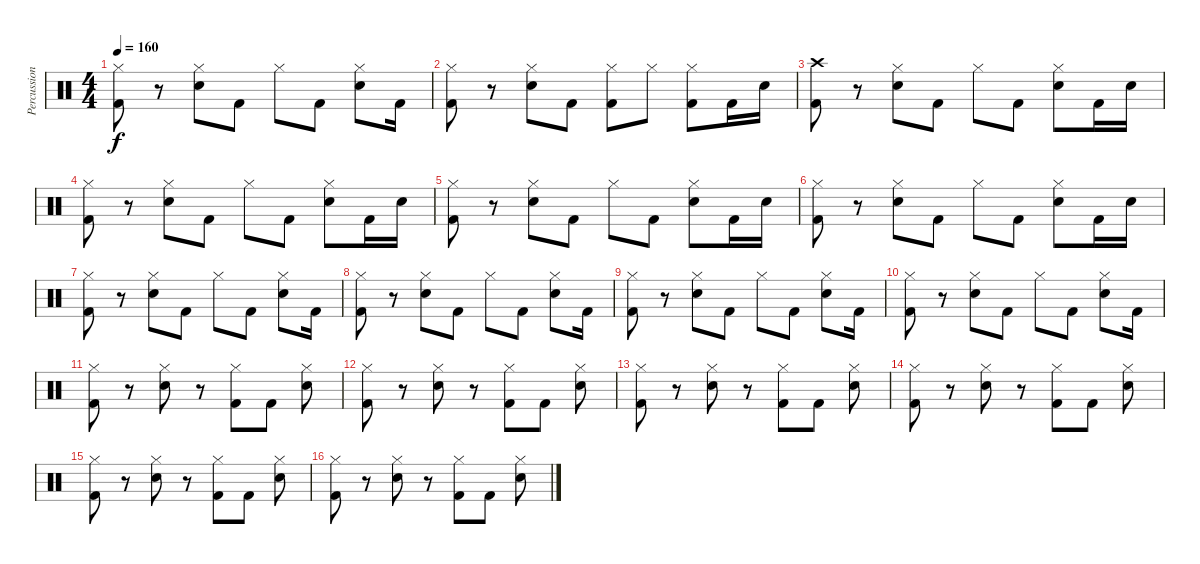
\track ("Percussion" "Percussion") {instrument percussion}
\staff {score}
\articulation defaults
\ts (4 4)
\tempo 160
\clef neutral
\ks c
("Hi-Hat (closed)" "Kick (hit) 2").8{dy f} r.8 ("Hi-Hat (closed)" "Electric Snare (hit)").8 "Kick (hit) 2".8 "Hi-Hat (closed)".8 "Kick (hit) 2".8 ("Hi-Hat (closed)" "Electric Snare (hit)").8 "Kick (hit) 2".16 |
("Hi-Hat (closed)" "Kick (hit) 2").8 r.8 ("Hi-Hat (closed)" "Electric Snare (hit)").8 "Kick (hit) 2".8 ("Hi-Hat (closed)" "Kick (hit) 2").8 "Hi-Hat (closed)".8 ("Hi-Hat (closed)" "Kick (hit) 2").8 "Kick (hit) 2".16 "Electric Snare (hit)".16 |
("Crash high (hit)" "Kick (hit) 2").8 r.8 ("Hi-Hat (closed)" "Electric Snare (hit)").8 "Kick (hit) 2".8 "Hi-Hat (closed)".8 "Kick (hit) 2".8 ("Hi-Hat (closed)" "Electric Snare (hit)").8 "Kick (hit) 2".16 "Electric Snare (hit)".16 |
("Hi-Hat (closed)" "Kick (hit) 2").8 r.8 ("Hi-Hat (closed)" "Electric Snare (hit)").8 "Kick (hit) 2".8 "Hi-Hat (closed)".8 "Kick (hit) 2".8 ("Hi-Hat (closed)" "Electric Snare (hit)").8 "Kick (hit) 2".16 "Electric Snare (hit)".16 |
("Hi-Hat (closed)" "Kick (hit) 2").8 r.8 ("Hi-Hat (closed)" "Electric Snare (hit)").8 "Kick (hit) 2".8 "Hi-Hat (closed)".8 "Kick (hit) 2".8 ("Hi-Hat (closed)" "Electric Snare (hit)").8 "Kick (hit) 2".16 "Electric Snare (hit)".16 |
("Hi-Hat (closed)" "Kick (hit) 2").8 r.8 ("Hi-Hat (closed)" "Electric Snare (hit)").8 "Kick (hit) 2".8 "Hi-Hat (closed)".8 "Kick (hit) 2".8 ("Hi-Hat (closed)" "Electric Snare (hit)").8 "Kick (hit) 2".16 "Electric Snare (hit)".16 |
("Hi-Hat (closed)" "Kick (hit) 2").8 r.8 ("Hi-Hat (closed)" "Electric Snare (hit)").8 "Kick (hit) 2".8 "Hi-Hat (closed)".8 "Kick (hit) 2".8 ("Hi-Hat (closed)" "Electric Snare (hit)").8 "Kick (hit) 2".16 |
("Hi-Hat (closed)" "Kick (hit) 2").8 r.8 ("Hi-Hat (closed)" "Electric Snare (hit)").8 "Kick (hit) 2".8 "Hi-Hat (closed)".8 "Kick (hit) 2".8 ("Hi-Hat (closed)" "Electric Snare (hit)").8 "Kick (hit) 2".16 |
("Hi-Hat (closed)" "Kick (hit) 2").8 r.8 ("Hi-Hat (closed)" "Electric Snare (hit)").8 "Kick (hit) 2".8 "Hi-Hat (closed)".8 "Kick (hit) 2".8 ("Hi-Hat (closed)" "Electric Snare (hit)").8 "Kick (hit) 2".16 |
("Hi-Hat (closed)" "Kick (hit) 2").8 r.8 ("Hi-Hat (closed)" "Electric Snare (hit)").8 "Kick (hit) 2".8 "Hi-Hat (closed)".8 "Kick (hit) 2".8 ("Hi-Hat (closed)" "Electric Snare (hit)").8 "Kick (hit) 2".16 |
("Hi-Hat (closed)" "Kick (hit) 2").8 r.8 ("Hi-Hat (closed)" "Electric Snare (hit)").8 r.8 ("Hi-Hat (closed)" "Kick (hit) 2").8 "Kick (hit) 2".8 ("Hi-Hat (closed)" "Electric Snare (hit)").8 |
("Hi-Hat (closed)" "Kick (hit) 2").8 r.8 ("Hi-Hat (closed)" "Electric Snare (hit)").8 r.8 ("Hi-Hat (closed)" "Kick (hit) 2").8 "Kick (hit) 2".8 ("Hi-Hat (closed)" "Electric Snare (hit)").8 |
("Hi-Hat (closed)" "Kick (hit) 2").8 r.8 ("Hi-Hat (closed)" "Electric Snare (hit)").8 r.8 ("Hi-Hat (closed)" "Kick (hit) 2").8 "Kick (hit) 2".8 ("Hi-Hat (closed)" "Electric Snare (hit)").8 |
("Hi-Hat (closed)" "Kick (hit) 2").8 r.8 ("Hi-Hat (closed)" "Electric Snare (hit)").8 r.8 ("Hi-Hat (closed)" "Kick (hit) 2").8 "Kick (hit) 2".8 ("Hi-Hat (closed)" "Electric Snare (hit)").8 |
("Hi-Hat (closed)" "Kick (hit) 2").8 r.8 ("Hi-Hat (closed)" "Electric Snare (hit)").8 r.8 ("Hi-Hat (closed)" "Kick (hit) 2").8 "Kick (hit) 2".8 ("Hi-Hat (closed)" "Electric Snare (hit)").8 |
("Hi-Hat (closed)" "Kick (hit) 2").8 r.8 ("Hi-Hat (closed)" "Electric Snare (hit)").8 r.8 ("Hi-Hat (closed)" "Kick (hit) 2").8 "Kick (hit) 2".8 ("Hi-Hat (closed)" "Electric Snare (hit)").8
